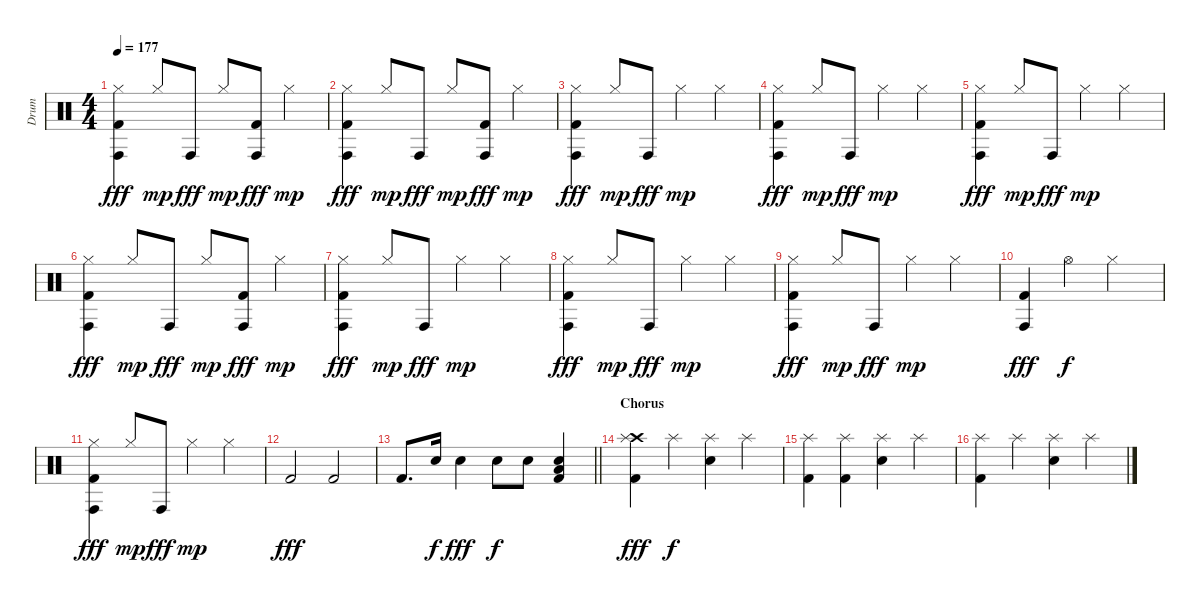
\track ("Drum" "Drum") {instrument percussion}
\staff {score}
\articulation defaults
\ts (4 4)
\tempo 177
\clef neutral
\ks c
("Hi-Hat (closed)" "Conga high (hit)" "Kick (hit) 2").4{dy fff} "Hi-Hat (closed)".8{dy mp} "Conga high (hit)".8{dy fff} "Hi-Hat (closed)".8{dy mp} ("Conga high (hit)" "Kick (hit) 2").8{dy fff} "Hi-Hat (closed)".4{dy mp} |
("Hi-Hat (closed)" "Conga high (hit)" "Kick (hit) 2").4{dy fff} "Hi-Hat (closed)".8{dy mp} "Conga high (hit)".8{dy fff} "Hi-Hat (closed)".8{dy mp} ("Conga high (hit)" "Kick (hit) 2").8{dy fff} "Hi-Hat (closed)".4{dy mp} |
("Hi-Hat (closed)" "Conga high (hit)" "Kick (hit) 2").4{dy fff} "Hi-Hat (closed)".8{dy mp} "Conga high (hit)".8{dy fff} "Hi-Hat (closed)".4{dy mp} "Hi-Hat (closed)".4 |
("Hi-Hat (closed)" "Conga high (hit)" "Kick (hit) 2").4{dy fff} "Hi-Hat (closed)".8{dy mp} "Conga high (hit)".8{dy fff} "Hi-Hat (closed)".4{dy mp} "Hi-Hat (closed)".4 |
("Hi-Hat (closed)" "Conga high (hit)" "Kick (hit) 2").4{dy fff} "Hi-Hat (closed)".8{dy mp} "Conga high (hit)".8{dy fff} "Hi-Hat (closed)".4{dy mp} "Hi-Hat (closed)".4 |
("Hi-Hat (closed)" "Conga high (hit)" "Kick (hit) 2").4{dy fff} "Hi-Hat (closed)".8{dy mp} "Conga high (hit)".8{dy fff} "Hi-Hat (closed)".8{dy mp} ("Conga high (hit)" "Kick (hit) 2").8{dy fff} "Hi-Hat (closed)".4{dy mp} |
("Hi-Hat (closed)" "Conga high (hit)" "Kick (hit) 2").4{dy fff} "Hi-Hat (closed)".8{dy mp} "Conga high (hit)".8{dy fff} "Hi-Hat (closed)".4{dy mp} "Hi-Hat (closed)".4 |
("Hi-Hat (closed)" "Conga high (hit)" "Kick (hit) 2").4{dy fff} "Hi-Hat (closed)".8{dy mp} "Conga high (hit)".8{dy fff} "Hi-Hat (closed)".4{dy mp} "Hi-Hat (closed)".4 |
("Hi-Hat (closed)" "Conga high (hit)" "Kick (hit) 2").4{dy fff} "Hi-Hat (closed)".8{dy mp} "Conga high (hit)".8{dy fff} "Hi-Hat (closed)".4{dy mp} "Hi-Hat (closed)".4 |
("Conga high (hit)" "Kick (hit) 2").4{dy fff} "Hi-Hat (open)".4{dy f} "Hi-Hat (closed)".2 |
("Hi-Hat (closed)" "Conga high (hit)" "Kick (hit) 2").4{dy fff} "Hi-Hat (closed)".8{dy mp} "Conga high (hit)".8{dy fff} "Hi-Hat (closed)".4{dy mp} "Hi-Hat (closed)".4 |
"Kick (hit) 2".2{dy fff} "Kick (hit) 2".2 |
\barLineRight lightlight "Kick (hit) 2".8{d} "Snare (hit) 2".16{dy f} "Snare (hit) 2".4{dy fff} "Snare (hit) 2".8{dy f} "Snare (hit) 2".8
("Snare (hit) 2" "Low Floor Tom (hit)" "Kick (hit) 2").4 |
\section ("" "Chorus")
("Crash high (hit)" "Splash (hit)" "Kick (hit) 2").4{dy fff} "Splash (hit)".4{dy f} ("Snare (hit) 2" "Splash (hit)").4 "Splash (hit)".4 |
("Splash (hit)" "Kick (hit) 2").4 ("Splash (hit)" "Kick (hit) 2").4 ("Snare (hit) 2" "Splash (hit)").4 "Splash (hit)".4 |
("Splash (hit)" "Kick (hit) 2").4 "Splash (hit)".4 ("Snare (hit) 2" "Splash (hit)").4 "Splash (hit)".4
